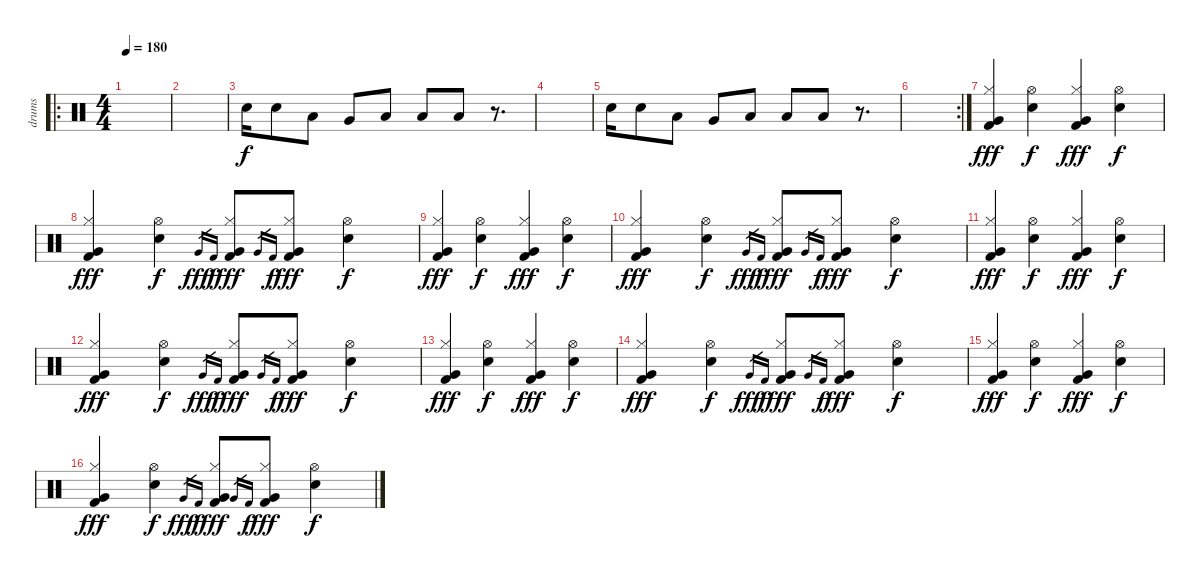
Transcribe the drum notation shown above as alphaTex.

\track ("drums" "drums") {instrument percussion}
\staff {score}
\articulation defaults
\ro
\ts (4 4)
\tempo 180
\clef neutral
\ks c
|
|
"Snare (hit) 2".16 "Snare (hit) 2".8 "Low Tom (hit)".8 "Very Low Tom (hit)".8 "Low Tom (hit)".8 "Low Tom (hit)".8 "Low Floor Tom (hit)".8 r.8{d} |
|
"Snare (hit) 2".16 "Snare (hit) 2".8 "Low Tom (hit)".8 "Very Low Tom (hit)".8 "Low Tom (hit)".8 "Low Tom (hit)".8 "Low Floor Tom (hit)".8 r.8{d} |
\rc 2
|
("Hi-Hat (closed)" "Very Low Tom (hit)" "Kick (hit) 2").4{dy fff} ("Hi-Hat (open)" "Electric Snare (hit)").4{dy f} ("Hi-Hat (closed)" "Very Low Tom (hit)" "Kick (hit) 2").4{dy fff} ("Hi-Hat (open)" "Electric Snare (hit)").4{dy f} |
("Hi-Hat (closed)" "Very Low Tom (hit)" "Kick (hit) 2").4{dy fff} ("Hi-Hat (open)" "Electric Snare (hit)").4{dy f} "Very Low Tom (hit)".16{gr dy fff} "Kick (hit) 2".16{gr dy f} ("Hi-Hat (closed)" "Very Low Tom (hit)" "Kick (hit) 2").8{dy fff} "Very Low Tom (hit)".16{gr} "Kick (hit) 2".16{gr dy f} ("Hi-Hat (closed)" "Very Low Tom (hit)" "Kick (hit) 2").8{dy fff} ("Hi-Hat (open)" "Electric Snare (hit)").4{dy f} |
("Hi-Hat (closed)" "Very Low Tom (hit)" "Kick (hit) 2").4{dy fff} ("Hi-Hat (open)" "Electric Snare (hit)").4{dy f} ("Hi-Hat (closed)" "Very Low Tom (hit)" "Kick (hit) 2").4{dy fff} ("Hi-Hat (open)" "Electric Snare (hit)").4{dy f} |
("Hi-Hat (closed)" "Very Low Tom (hit)" "Kick (hit) 2").4{dy fff} ("Hi-Hat (open)" "Electric Snare (hit)").4{dy f} "Very Low Tom (hit)".16{gr dy fff} "Kick (hit) 2".16{gr dy f} ("Hi-Hat (closed)" "Very Low Tom (hit)" "Kick (hit) 2").8{dy fff} "Very Low Tom (hit)".16{gr} "Kick (hit) 2".16{gr dy f} ("Hi-Hat (closed)" "Very Low Tom (hit)" "Kick (hit) 2").8{dy fff} ("Hi-Hat (open)" "Electric Snare (hit)").4{dy f} |
("Hi-Hat (closed)" "Very Low Tom (hit)" "Kick (hit) 2").4{dy fff} ("Hi-Hat (open)" "Electric Snare (hit)").4{dy f} ("Hi-Hat (closed)" "Very Low Tom (hit)" "Kick (hit) 2").4{dy fff} ("Hi-Hat (open)" "Electric Snare (hit)").4{dy f} |
("Hi-Hat (closed)" "Very Low Tom (hit)" "Kick (hit) 2").4{dy fff} ("Hi-Hat (open)" "Electric Snare (hit)").4{dy f} "Very Low Tom (hit)".16{gr dy fff} "Kick (hit) 2".16{gr dy f} ("Hi-Hat (closed)" "Very Low Tom (hit)" "Kick (hit) 2").8{dy fff} "Very Low Tom (hit)".16{gr} "Kick (hit) 2".16{gr dy f} ("Hi-Hat (closed)" "Very Low Tom (hit)" "Kick (hit) 2").8{dy fff} ("Hi-Hat (open)" "Electric Snare (hit)").4{dy f} |
("Hi-Hat (closed)" "Very Low Tom (hit)" "Kick (hit) 2").4{dy fff} ("Hi-Hat (open)" "Electric Snare (hit)").4{dy f} ("Hi-Hat (closed)" "Very Low Tom (hit)" "Kick (hit) 2").4{dy fff} ("Hi-Hat (open)" "Electric Snare (hit)").4{dy f} |
("Hi-Hat (closed)" "Very Low Tom (hit)" "Kick (hit) 2").4{dy fff} ("Hi-Hat (open)" "Electric Snare (hit)").4{dy f} "Very Low Tom (hit)".16{gr dy fff} "Kick (hit) 2".16{gr dy f} ("Hi-Hat (closed)" "Very Low Tom (hit)" "Kick (hit) 2").8{dy fff} "Very Low Tom (hit)".16{gr} "Kick (hit) 2".16{gr dy f} ("Hi-Hat (closed)" "Very Low Tom (hit)" "Kick (hit) 2").8{dy fff} ("Hi-Hat (open)" "Electric Snare (hit)").4{dy f} |
("Hi-Hat (closed)" "Very Low Tom (hit)" "Kick (hit) 2").4{dy fff} ("Hi-Hat (open)" "Electric Snare (hit)").4{dy f} ("Hi-Hat (closed)" "Very Low Tom (hit)" "Kick (hit) 2").4{dy fff} ("Hi-Hat (open)" "Electric Snare (hit)").4{dy f} |
("Hi-Hat (closed)" "Very Low Tom (hit)" "Kick (hit) 2").4{dy fff} ("Hi-Hat (open)" "Electric Snare (hit)").4{dy f} "Very Low Tom (hit)".16{gr dy fff} "Kick (hit) 2".16{gr dy f} ("Hi-Hat (closed)" "Very Low Tom (hit)" "Kick (hit) 2").8{dy fff} "Very Low Tom (hit)".16{gr} "Kick (hit) 2".16{gr dy f} ("Hi-Hat (closed)" "Very Low Tom (hit)" "Kick (hit) 2").8{dy fff} ("Hi-Hat (open)" "Electric Snare (hit)").4{dy f}
